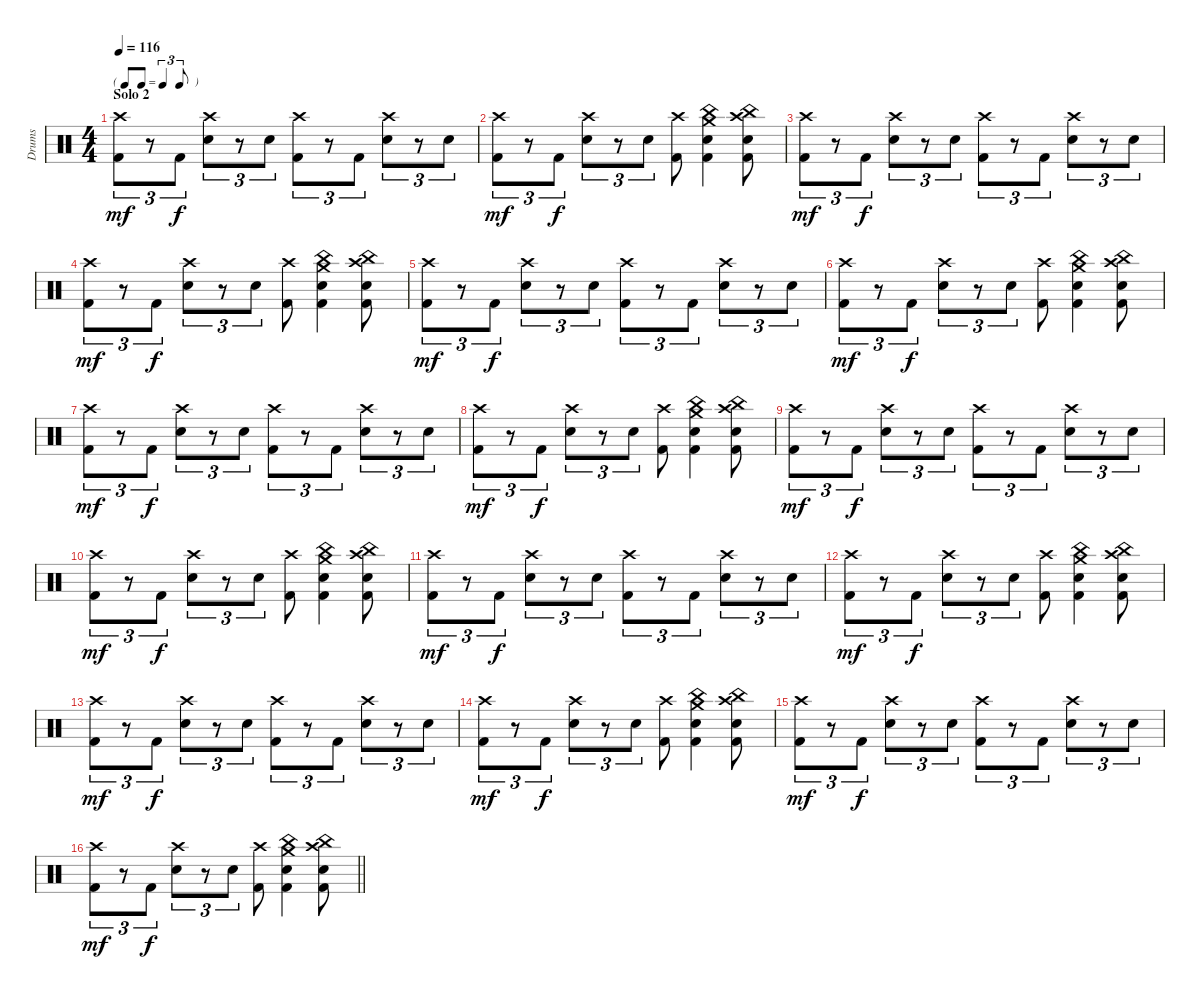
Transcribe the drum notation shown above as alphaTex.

\track ("Drums" "Drums") {instrument percussion}
\staff {score}
\articulation defaults
\ts (4 4)
\tf triplet8th
\section ("" "Solo 2")
\tempo 116
\clef neutral
\ks c
("Crash high (hit)" "Kick (hit) 2").8{tu (3 2) dy mf} r.8{tu (3 2)} "Kick (hit) 2".8{tu (3 2) dy f} ("Crash high (hit)" "Snare (hit) 2").8{tu (3 2)} r.8{tu (3 2)} "Snare (hit) 2".8{tu (3 2)} ("Crash high (hit)" "Kick (hit) 2").8{tu (3 2)} r.8{tu (3 2)} "Kick (hit) 2".8{tu (3 2)} ("Crash high (hit)" "Snare (hit) 2").8{tu (3 2)} r.8{tu (3 2)} "Snare (hit) 2".8{tu (3 2)} |
("Crash high (hit)" "Kick (hit) 2").8{tu (3 2) dy mf} r.8{tu (3 2)} "Kick (hit) 2".8{tu (3 2) dy f} ("Crash high (hit)" "Snare (hit) 2").8{tu (3 2)} r.8{tu (3 2)} "Snare (hit) 2".8{tu (3 2)} ("Crash high (hit)" "Kick (hit) 2").8 ("China (hit)" "Crash medium (hit)" "Snare (hit) 2" "Kick (hit) 2").4 ("China (hit)" "Crash high (hit)" "Snare (hit) 2" "Kick (hit) 2").8 |
("Crash high (hit)" "Kick (hit) 2").8{tu (3 2) dy mf} r.8{tu (3 2)} "Kick (hit) 2".8{tu (3 2) dy f} ("Crash high (hit)" "Snare (hit) 2").8{tu (3 2)} r.8{tu (3 2)} "Snare (hit) 2".8{tu (3 2)} ("Crash high (hit)" "Kick (hit) 2").8{tu (3 2)} r.8{tu (3 2)} "Kick (hit) 2".8{tu (3 2)} ("Crash high (hit)" "Snare (hit) 2").8{tu (3 2)} r.8{tu (3 2)} "Snare (hit) 2".8{tu (3 2)} |
("Crash high (hit)" "Kick (hit) 2").8{tu (3 2) dy mf} r.8{tu (3 2)} "Kick (hit) 2".8{tu (3 2) dy f} ("Crash high (hit)" "Snare (hit) 2").8{tu (3 2)} r.8{tu (3 2)} "Snare (hit) 2".8{tu (3 2)} ("Crash high (hit)" "Kick (hit) 2").8 ("China (hit)" "Crash medium (hit)" "Snare (hit) 2" "Kick (hit) 2").4 ("China (hit)" "Crash high (hit)" "Snare (hit) 2" "Kick (hit) 2").8 |
("Crash high (hit)" "Kick (hit) 2").8{tu (3 2) dy mf} r.8{tu (3 2)} "Kick (hit) 2".8{tu (3 2) dy f} ("Crash high (hit)" "Snare (hit) 2").8{tu (3 2)} r.8{tu (3 2)} "Snare (hit) 2".8{tu (3 2)} ("Crash high (hit)" "Kick (hit) 2").8{tu (3 2)} r.8{tu (3 2)} "Kick (hit) 2".8{tu (3 2)} ("Crash high (hit)" "Snare (hit) 2").8{tu (3 2)} r.8{tu (3 2)} "Snare (hit) 2".8{tu (3 2)} |
("Crash high (hit)" "Kick (hit) 2").8{tu (3 2) dy mf} r.8{tu (3 2)} "Kick (hit) 2".8{tu (3 2) dy f} ("Crash high (hit)" "Snare (hit) 2").8{tu (3 2)} r.8{tu (3 2)} "Snare (hit) 2".8{tu (3 2)} ("Crash high (hit)" "Kick (hit) 2").8 ("China (hit)" "Crash medium (hit)" "Snare (hit) 2" "Kick (hit) 2").4 ("China (hit)" "Crash high (hit)" "Snare (hit) 2" "Kick (hit) 2").8 |
("Crash high (hit)" "Kick (hit) 2").8{tu (3 2) dy mf} r.8{tu (3 2)} "Kick (hit) 2".8{tu (3 2) dy f} ("Crash high (hit)" "Snare (hit) 2").8{tu (3 2)} r.8{tu (3 2)} "Snare (hit) 2".8{tu (3 2)} ("Crash high (hit)" "Kick (hit) 2").8{tu (3 2)} r.8{tu (3 2)} "Kick (hit) 2".8{tu (3 2)} ("Crash high (hit)" "Snare (hit) 2").8{tu (3 2)} r.8{tu (3 2)} "Snare (hit) 2".8{tu (3 2)} |
("Crash high (hit)" "Kick (hit) 2").8{tu (3 2) dy mf} r.8{tu (3 2)} "Kick (hit) 2".8{tu (3 2) dy f} ("Crash high (hit)" "Snare (hit) 2").8{tu (3 2)} r.8{tu (3 2)} "Snare (hit) 2".8{tu (3 2)} ("Crash high (hit)" "Kick (hit) 2").8 ("China (hit)" "Crash medium (hit)" "Snare (hit) 2" "Kick (hit) 2").4 ("China (hit)" "Crash high (hit)" "Snare (hit) 2" "Kick (hit) 2").8 |
("Crash high (hit)" "Kick (hit) 2").8{tu (3 2) dy mf} r.8{tu (3 2)} "Kick (hit) 2".8{tu (3 2) dy f} ("Crash high (hit)" "Snare (hit) 2").8{tu (3 2)} r.8{tu (3 2)} "Snare (hit) 2".8{tu (3 2)} ("Crash high (hit)" "Kick (hit) 2").8{tu (3 2)} r.8{tu (3 2)} "Kick (hit) 2".8{tu (3 2)} ("Crash high (hit)" "Snare (hit) 2").8{tu (3 2)} r.8{tu (3 2)} "Snare (hit) 2".8{tu (3 2)} |
("Crash high (hit)" "Kick (hit) 2").8{tu (3 2) dy mf} r.8{tu (3 2)} "Kick (hit) 2".8{tu (3 2) dy f} ("Crash high (hit)" "Snare (hit) 2").8{tu (3 2)} r.8{tu (3 2)} "Snare (hit) 2".8{tu (3 2)} ("Crash high (hit)" "Kick (hit) 2").8 ("China (hit)" "Crash medium (hit)" "Snare (hit) 2" "Kick (hit) 2").4 ("China (hit)" "Crash high (hit)" "Snare (hit) 2" "Kick (hit) 2").8 |
("Crash high (hit)" "Kick (hit) 2").8{tu (3 2) dy mf} r.8{tu (3 2)} "Kick (hit) 2".8{tu (3 2) dy f} ("Crash high (hit)" "Snare (hit) 2").8{tu (3 2)} r.8{tu (3 2)} "Snare (hit) 2".8{tu (3 2)} ("Crash high (hit)" "Kick (hit) 2").8{tu (3 2)} r.8{tu (3 2)} "Kick (hit) 2".8{tu (3 2)} ("Crash high (hit)" "Snare (hit) 2").8{tu (3 2)} r.8{tu (3 2)} "Snare (hit) 2".8{tu (3 2)} |
("Crash high (hit)" "Kick (hit) 2").8{tu (3 2) dy mf} r.8{tu (3 2)} "Kick (hit) 2".8{tu (3 2) dy f} ("Crash high (hit)" "Snare (hit) 2").8{tu (3 2)} r.8{tu (3 2)} "Snare (hit) 2".8{tu (3 2)} ("Crash high (hit)" "Kick (hit) 2").8 ("China (hit)" "Crash medium (hit)" "Snare (hit) 2" "Kick (hit) 2").4 ("China (hit)" "Crash high (hit)" "Snare (hit) 2" "Kick (hit) 2").8 |
("Crash high (hit)" "Kick (hit) 2").8{tu (3 2) dy mf} r.8{tu (3 2)} "Kick (hit) 2".8{tu (3 2) dy f} ("Crash high (hit)" "Snare (hit) 2").8{tu (3 2)} r.8{tu (3 2)} "Snare (hit) 2".8{tu (3 2)} ("Crash high (hit)" "Kick (hit) 2").8{tu (3 2)} r.8{tu (3 2)} "Kick (hit) 2".8{tu (3 2)} ("Crash high (hit)" "Snare (hit) 2").8{tu (3 2)} r.8{tu (3 2)} "Snare (hit) 2".8{tu (3 2)} |
("Crash high (hit)" "Kick (hit) 2").8{tu (3 2) dy mf} r.8{tu (3 2)} "Kick (hit) 2".8{tu (3 2) dy f} ("Crash high (hit)" "Snare (hit) 2").8{tu (3 2)} r.8{tu (3 2)} "Snare (hit) 2".8{tu (3 2)} ("Crash high (hit)" "Kick (hit) 2").8 ("China (hit)" "Crash medium (hit)" "Snare (hit) 2" "Kick (hit) 2").4 ("China (hit)" "Crash high (hit)" "Snare (hit) 2" "Kick (hit) 2").8 |
("Crash high (hit)" "Kick (hit) 2").8{tu (3 2) dy mf} r.8{tu (3 2)} "Kick (hit) 2".8{tu (3 2) dy f} ("Crash high (hit)" "Snare (hit) 2").8{tu (3 2)} r.8{tu (3 2)} "Snare (hit) 2".8{tu (3 2)} ("Crash high (hit)" "Kick (hit) 2").8{tu (3 2)} r.8{tu (3 2)} "Kick (hit) 2".8{tu (3 2)} ("Crash high (hit)" "Snare (hit) 2").8{tu (3 2)} r.8{tu (3 2)} "Snare (hit) 2".8{tu (3 2)} |
\barLineRight lightlight
("Crash high (hit)" "Kick (hit) 2").8{tu (3 2) dy mf} r.8{tu (3 2)} "Kick (hit) 2".8{tu (3 2) dy f} ("Crash high (hit)" "Snare (hit) 2").8{tu (3 2)} r.8{tu (3 2)} "Snare (hit) 2".8{tu (3 2)} ("Crash high (hit)" "Kick (hit) 2").8 ("China (hit)" "Crash medium (hit)" "Snare (hit) 2" "Kick (hit) 2").4 ("China (hit)" "Crash high (hit)" "Snare (hit) 2" "Kick (hit) 2").8
